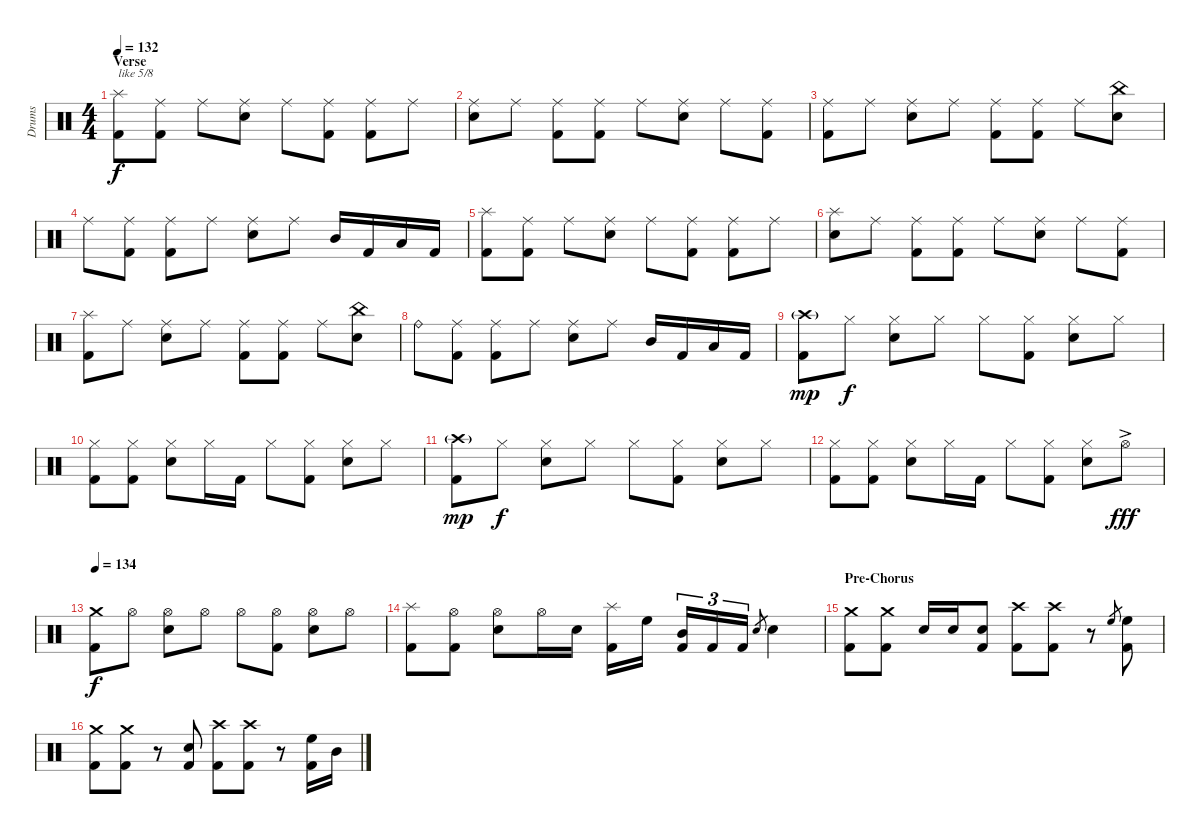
\track ("Drums" "Drums") {instrument percussion}
\staff {score}
\articulation defaults
\ts (4 4)
\section ("" "Verse")
\tempo 132
\clef neutral
\ks c
("Splash (hit)" "Kick (hit) 2").8{txt "like 5/8" dy f} ("Ride (middle)" "Kick (hit) 2").8 "Ride (middle)".8 ("Ride (middle)" "Electric Snare (hit)").8 "Ride (middle)".8 ("Ride (middle)" "Kick (hit) 2").8 ("Ride (middle)" "Kick (hit) 2").8 "Ride (middle)".8 |
("Ride (middle)" "Electric Snare (hit)").8 "Ride (middle)".8 ("Ride (middle)" "Kick (hit) 2").8 ("Ride (middle)" "Kick (hit) 2").8 "Ride (middle)".8 ("Ride (middle)" "Electric Snare (hit)").8 "Ride (middle)".8 ("Ride (middle)" "Kick (hit) 2").8 |
("Ride (middle)" "Kick (hit) 2").8 "Ride (middle)".8 ("Ride (middle)" "Electric Snare (hit)").8 "Ride (middle)".8 ("Ride (middle)" "Kick (hit) 2").8 ("Ride (middle)" "Kick (hit) 2").8 "Ride (middle)".8 ("China (hit)" "Electric Snare (hit)").8 |
"Ride (middle)".8 ("Ride (middle)" "Kick (hit) 2").8 ("Ride (middle)" "Kick (hit) 2").8 "Ride (middle)".8 ("Ride (middle)" "Electric Snare (hit)").8 "Ride (middle)".8 "Mid Tom (hit)".16 "Kick (hit) 2".16 "Low Tom (hit)".16 "Kick (hit) 2".16 |
("Splash (hit)" "Kick (hit) 2").8 ("Ride (middle)" "Kick (hit) 2").8 "Ride (middle)".8 ("Ride (middle)" "Electric Snare (hit)").8 "Ride (middle)".8 ("Ride (middle)" "Kick (hit) 2").8 ("Ride (middle)" "Kick (hit) 2").8 "Ride (middle)".8 |
("Splash (hit)" "Electric Snare (hit)").8 "Ride (middle)".8 ("Ride (middle)" "Kick (hit) 2").8 ("Ride (middle)" "Kick (hit) 2").8 "Ride (middle)".8 ("Ride (middle)" "Electric Snare (hit)").8 "Ride (middle)".8 ("Ride (middle)" "Kick (hit) 2").8 |
("Splash (hit)" "Kick (hit) 2").8 "Ride (middle)".8 ("Ride (middle)" "Electric Snare (hit)").8 "Ride (middle)".8 ("Ride (middle)" "Kick (hit) 2").8 ("Ride (middle)" "Kick (hit) 2").8 "Ride (middle)".8 ("China (hit)" "Electric Snare (hit)").8 |
"Ride (bell)".8 ("Ride (middle)" "Kick (hit) 2").8 ("Ride (middle)" "Kick (hit) 2").8 "Ride (middle)".8 ("Ride (middle)" "Electric Snare (hit)").8 "Ride (middle)".8 "Mid Tom (hit)".16 "Kick (hit) 2".16 "Low Tom (hit)".16 "Kick (hit) 2".16 |
("Crash high (hit)"{g} "Kick (hit) 2").8{dy mp} "Hi-Hat (closed)".8{dy f} ("Hi-Hat (closed)" "Electric Snare (hit)").8 "Hi-Hat (closed)".8 "Hi-Hat (closed)".8 ("Hi-Hat (closed)" "Kick (hit) 2").8 ("Hi-Hat (closed)" "Electric Snare (hit)").8 "Hi-Hat (closed)".8 |
("Hi-Hat (closed)" "Kick (hit) 2").8 ("Hi-Hat (closed)" "Kick (hit) 2").8 ("Hi-Hat (closed)" "Electric Snare (hit)").8 "Hi-Hat (closed)".16 "Kick (hit) 2".16 "Hi-Hat (closed)".8 ("Hi-Hat (closed)" "Kick (hit) 2").8 ("Hi-Hat (closed)" "Electric Snare (hit)").8 "Hi-Hat (closed)".8 |
("Crash high (hit)"{g} "Kick (hit) 2").8{dy mp} "Hi-Hat (closed)".8{dy f} ("Hi-Hat (closed)" "Electric Snare (hit)").8 "Hi-Hat (closed)".8 "Hi-Hat (closed)".8 ("Hi-Hat (closed)" "Kick (hit) 2").8 ("Hi-Hat (closed)" "Electric Snare (hit)").8 "Hi-Hat (closed)".8 |
("Hi-Hat (closed)" "Kick (hit) 2").8 ("Hi-Hat (closed)" "Kick (hit) 2").8 ("Hi-Hat (closed)" "Electric Snare (hit)").8 "Hi-Hat (closed)".16 "Kick (hit) 2".16 "Hi-Hat (closed)".8 ("Hi-Hat (closed)" "Kick (hit) 2").8 ("Hi-Hat (closed)" "Electric Snare (hit)").8 "Hi-Hat (open)"{ac}.8{dy fff} |
\tempo 134
("Crash medium (hit)" "Kick (hit) 2").8{dy f} "Hi-Hat (open)".8 ("Hi-Hat (open)" "Electric Snare (hit)").8 "Hi-Hat (open)".8 "Hi-Hat (open)".8 ("Hi-Hat (open)" "Kick (hit) 2").8 ("Hi-Hat (open)" "Electric Snare (hit)").8 "Hi-Hat (open)".8 |
("Splash (hit)" "Kick (hit) 2").8 ("Hi-Hat (open)" "Kick (hit) 2").8 ("Hi-Hat (open)" "Electric Snare (hit)").8 "Hi-Hat (open)".16 "Electric Snare (hit)".16 ("Splash (hit)" "Kick (hit) 2").16 "High Floor Tom (hit)".16 ("Mid Tom (hit)" "Kick (hit) 2").16{tu (3 2)} "Kick (hit) 2".16{tu (3 2)} "Kick (hit) 2".16{tu (3 2)} "Electric Snare (hit)".8{gr} "Electric Snare (hit)".4 |
\section ("" "Pre-Chorus")
("Crash medium (hit)" "Kick (hit) 2").8 ("Crash medium (hit)" "Kick (hit) 2").8 "Electric Snare (hit)".16 "Electric Snare (hit)".16 ("Electric Snare (hit)" "Kick (hit) 2").8 ("Crash high (hit)" "Kick (hit) 2").8 ("Crash high (hit)" "Kick (hit) 2").8 r.8 "High Floor Tom (hit)".8{gr} ("High Floor Tom (hit)" "Kick (hit) 2").8 |
("Crash medium (hit)" "Kick (hit) 2").8 ("Crash medium (hit)" "Kick (hit) 2").8 r.8 ("Electric Snare (hit)" "Kick (hit) 2").8 ("Crash high (hit)" "Kick (hit) 2").8 ("Crash high (hit)" "Kick (hit) 2").8 r.8 ("High Floor Tom (hit)" "Kick (hit) 2").16 "Mid Tom (hit)".16
